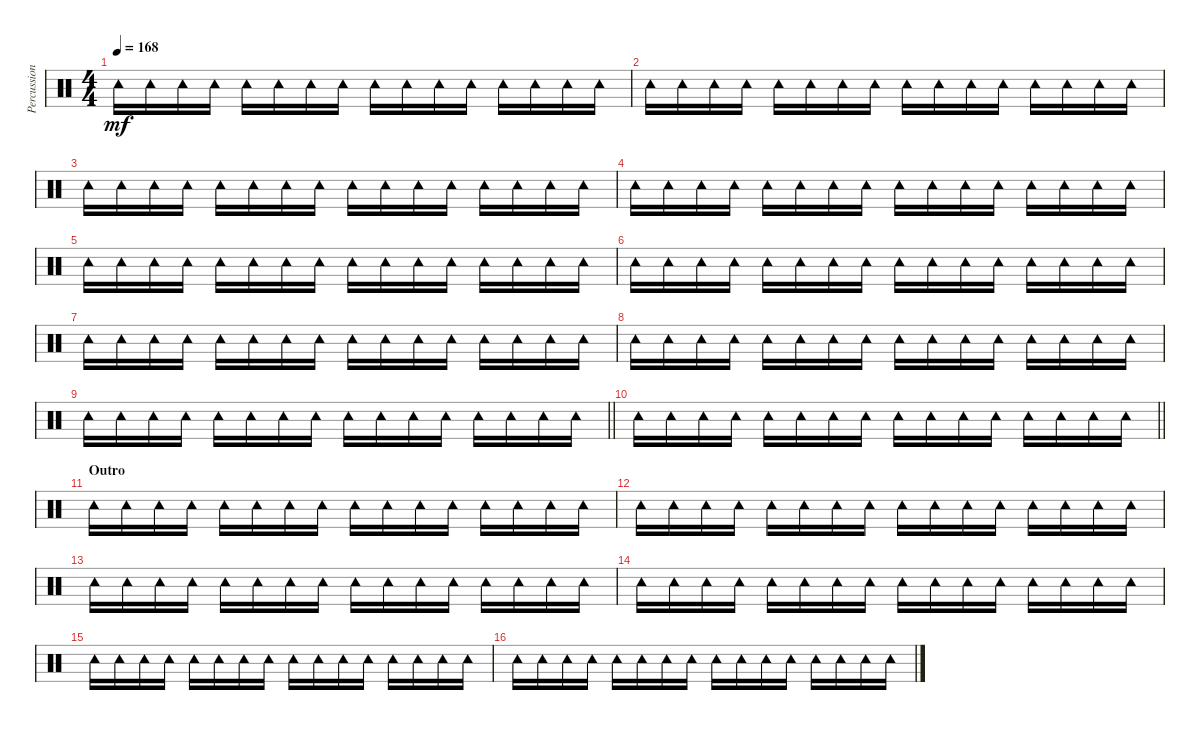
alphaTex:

\track ("Percussion" "Percussion") {instrument percussion}
\staff {score}
\articulation defaults
\ts (4 4)
\tempo 168
\clef neutral
\ks c "Tambourine (hit)".16{dy mf} "Tambourine (hit)".16 "Tambourine (hit)".16 "Tambourine (hit)".16 "Tambourine (hit)".16 "Tambourine (hit)".16 "Tambourine (hit)".16 "Tambourine (hit)".16 "Tambourine (hit)".16 "Tambourine (hit)".16 "Tambourine (hit)".16 "Tambourine (hit)".16 "Tambourine (hit)".16 "Tambourine (hit)".16 "Tambourine (hit)".16 "Tambourine (hit)".16
|
"Tambourine (hit)".16 "Tambourine (hit)".16 "Tambourine (hit)".16 "Tambourine (hit)".16 "Tambourine (hit)".16 "Tambourine (hit)".16 "Tambourine (hit)".16 "Tambourine (hit)".16 "Tambourine (hit)".16 "Tambourine (hit)".16 "Tambourine (hit)".16 "Tambourine (hit)".16 "Tambourine (hit)".16 "Tambourine (hit)".16 "Tambourine (hit)".16 "Tambourine (hit)".16 |
"Tambourine (hit)".16 "Tambourine (hit)".16 "Tambourine (hit)".16 "Tambourine (hit)".16 "Tambourine (hit)".16 "Tambourine (hit)".16 "Tambourine (hit)".16 "Tambourine (hit)".16 "Tambourine (hit)".16 "Tambourine (hit)".16 "Tambourine (hit)".16 "Tambourine (hit)".16 "Tambourine (hit)".16 "Tambourine (hit)".16 "Tambourine (hit)".16 "Tambourine (hit)".16 |
"Tambourine (hit)".16 "Tambourine (hit)".16 "Tambourine (hit)".16 "Tambourine (hit)".16 "Tambourine (hit)".16 "Tambourine (hit)".16 "Tambourine (hit)".16 "Tambourine (hit)".16 "Tambourine (hit)".16 "Tambourine (hit)".16 "Tambourine (hit)".16 "Tambourine (hit)".16 "Tambourine (hit)".16 "Tambourine (hit)".16 "Tambourine (hit)".16 "Tambourine (hit)".16 |
"Tambourine (hit)".16 "Tambourine (hit)".16 "Tambourine (hit)".16 "Tambourine (hit)".16 "Tambourine (hit)".16 "Tambourine (hit)".16 "Tambourine (hit)".16 "Tambourine (hit)".16 "Tambourine (hit)".16 "Tambourine (hit)".16 "Tambourine (hit)".16 "Tambourine (hit)".16 "Tambourine (hit)".16 "Tambourine (hit)".16 "Tambourine (hit)".16 "Tambourine (hit)".16 |
"Tambourine (hit)".16 "Tambourine (hit)".16 "Tambourine (hit)".16 "Tambourine (hit)".16 "Tambourine (hit)".16 "Tambourine (hit)".16 "Tambourine (hit)".16 "Tambourine (hit)".16 "Tambourine (hit)".16 "Tambourine (hit)".16 "Tambourine (hit)".16 "Tambourine (hit)".16 "Tambourine (hit)".16 "Tambourine (hit)".16 "Tambourine (hit)".16 "Tambourine (hit)".16 |
"Tambourine (hit)".16 "Tambourine (hit)".16 "Tambourine (hit)".16 "Tambourine (hit)".16 "Tambourine (hit)".16 "Tambourine (hit)".16 "Tambourine (hit)".16 "Tambourine (hit)".16 "Tambourine (hit)".16 "Tambourine (hit)".16 "Tambourine (hit)".16 "Tambourine (hit)".16 "Tambourine (hit)".16 "Tambourine (hit)".16 "Tambourine (hit)".16 "Tambourine (hit)".16 |
"Tambourine (hit)".16 "Tambourine (hit)".16 "Tambourine (hit)".16 "Tambourine (hit)".16 "Tambourine (hit)".16 "Tambourine (hit)".16 "Tambourine (hit)".16 "Tambourine (hit)".16 "Tambourine (hit)".16 "Tambourine (hit)".16 "Tambourine (hit)".16 "Tambourine (hit)".16 "Tambourine (hit)".16 "Tambourine (hit)".16 "Tambourine (hit)".16 "Tambourine (hit)".16 |
\barLineRight lightlight "Tambourine (hit)".16 "Tambourine (hit)".16 "Tambourine (hit)".16 "Tambourine (hit)".16 "Tambourine (hit)".16 "Tambourine (hit)".16 "Tambourine (hit)".16 "Tambourine (hit)".16 "Tambourine (hit)".16 "Tambourine (hit)".16 "Tambourine (hit)".16 "Tambourine (hit)".16 "Tambourine (hit)".16 "Tambourine (hit)".16 "Tambourine (hit)".16 "Tambourine (hit)".16
|
\barLineRight lightlight "Tambourine (hit)".16 "Tambourine (hit)".16 "Tambourine (hit)".16 "Tambourine (hit)".16 "Tambourine (hit)".16 "Tambourine (hit)".16 "Tambourine (hit)".16 "Tambourine (hit)".16 "Tambourine (hit)".16 "Tambourine (hit)".16 "Tambourine (hit)".16 "Tambourine (hit)".16 "Tambourine (hit)".16 "Tambourine (hit)".16 "Tambourine (hit)".16 "Tambourine (hit)".16
|
\section ("" "Outro")
"Tambourine (hit)".16 "Tambourine (hit)".16 "Tambourine (hit)".16 "Tambourine (hit)".16 "Tambourine (hit)".16 "Tambourine (hit)".16 "Tambourine (hit)".16 "Tambourine (hit)".16 "Tambourine (hit)".16 "Tambourine (hit)".16 "Tambourine (hit)".16 "Tambourine (hit)".16 "Tambourine (hit)".16 "Tambourine (hit)".16 "Tambourine (hit)".16 "Tambourine (hit)".16 |
"Tambourine (hit)".16 "Tambourine (hit)".16 "Tambourine (hit)".16 "Tambourine (hit)".16 "Tambourine (hit)".16 "Tambourine (hit)".16 "Tambourine (hit)".16 "Tambourine (hit)".16 "Tambourine (hit)".16 "Tambourine (hit)".16 "Tambourine (hit)".16 "Tambourine (hit)".16 "Tambourine (hit)".16 "Tambourine (hit)".16 "Tambourine (hit)".16 "Tambourine (hit)".16 |
"Tambourine (hit)".16 "Tambourine (hit)".16 "Tambourine (hit)".16 "Tambourine (hit)".16 "Tambourine (hit)".16 "Tambourine (hit)".16 "Tambourine (hit)".16 "Tambourine (hit)".16 "Tambourine (hit)".16 "Tambourine (hit)".16 "Tambourine (hit)".16 "Tambourine (hit)".16 "Tambourine (hit)".16 "Tambourine (hit)".16 "Tambourine (hit)".16 "Tambourine (hit)".16 |
"Tambourine (hit)".16 "Tambourine (hit)".16 "Tambourine (hit)".16 "Tambourine (hit)".16 "Tambourine (hit)".16 "Tambourine (hit)".16 "Tambourine (hit)".16 "Tambourine (hit)".16 "Tambourine (hit)".16 "Tambourine (hit)".16 "Tambourine (hit)".16 "Tambourine (hit)".16 "Tambourine (hit)".16 "Tambourine (hit)".16 "Tambourine (hit)".16 "Tambourine (hit)".16 |
"Tambourine (hit)".16 "Tambourine (hit)".16 "Tambourine (hit)".16 "Tambourine (hit)".16 "Tambourine (hit)".16 "Tambourine (hit)".16 "Tambourine (hit)".16 "Tambourine (hit)".16 "Tambourine (hit)".16 "Tambourine (hit)".16 "Tambourine (hit)".16 "Tambourine (hit)".16 "Tambourine (hit)".16 "Tambourine (hit)".16 "Tambourine (hit)".16 "Tambourine (hit)".16 |
"Tambourine (hit)".16 "Tambourine (hit)".16 "Tambourine (hit)".16 "Tambourine (hit)".16 "Tambourine (hit)".16 "Tambourine (hit)".16 "Tambourine (hit)".16 "Tambourine (hit)".16 "Tambourine (hit)".16 "Tambourine (hit)".16 "Tambourine (hit)".16 "Tambourine (hit)".16 "Tambourine (hit)".16 "Tambourine (hit)".16 "Tambourine (hit)".16 "Tambourine (hit)".16
